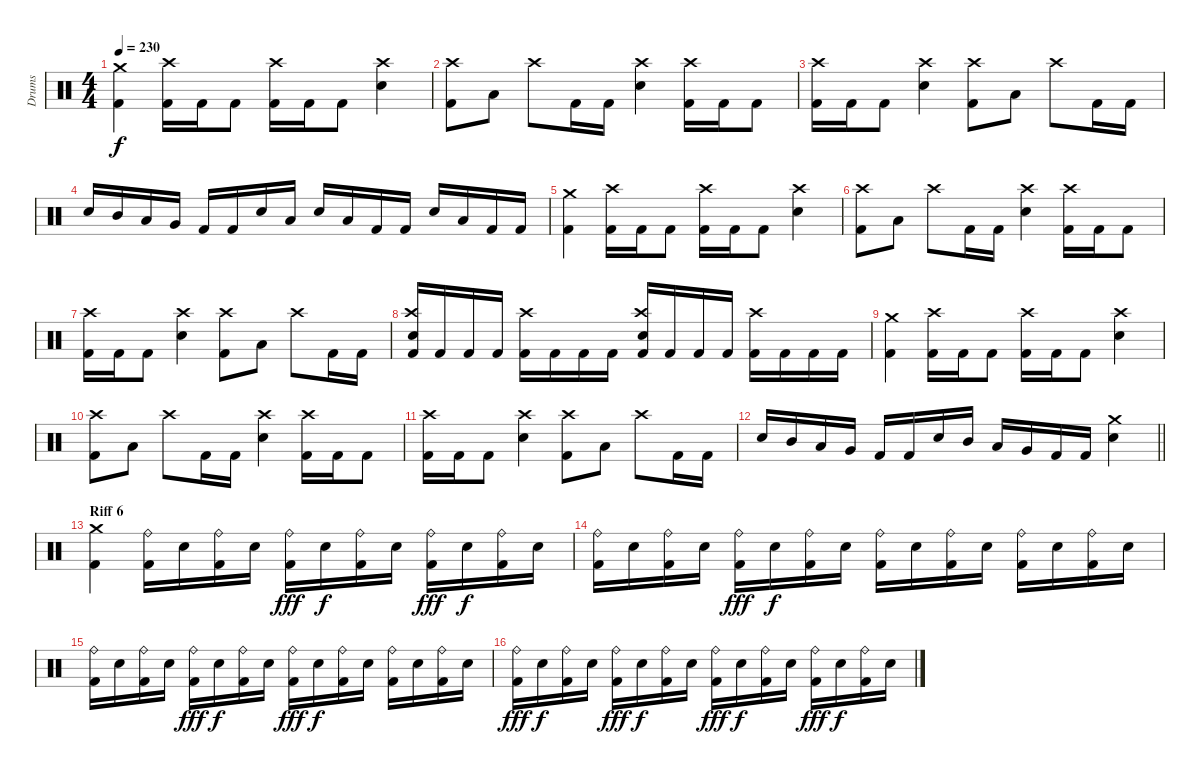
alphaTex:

\track ("Drums" "Drums") {instrument percussion}
\staff {score}
\articulation defaults
\ts (4 4)
\tempo 230
\clef neutral
\ks c
("Crash medium (hit)" "Kick (hit) 2").4{dy f} ("Crash high (hit)" "Kick (hit) 2").16 "Kick (hit) 2".16 "Kick (hit) 2".8 ("Crash high (hit)" "Kick (hit) 2").16 "Kick (hit) 2".16 "Kick (hit) 2".8 ("Crash high (hit)" "Electric Snare (hit)").4 |
("Crash high (hit)" "Kick (hit) 2").8 "Low Tom (hit)".8 "Crash high (hit)".8 "Kick (hit) 2".16 "Kick (hit) 2".16 ("Crash high (hit)" "Electric Snare (hit)").4 ("Crash high (hit)" "Kick (hit) 2").16 "Kick (hit) 2".16 "Kick (hit) 2".8 |
("Crash high (hit)" "Kick (hit) 2").16 "Kick (hit) 2".16 "Kick (hit) 2".8 ("Crash high (hit)" "Electric Snare (hit)").4 ("Crash high (hit)" "Kick (hit) 2").8 "Low Tom (hit)".8 "Crash high (hit)".8 "Kick (hit) 2".16 "Kick (hit) 2".16 |
"Electric Snare (hit)".16 "Mid Tom (hit)".16 "Low Tom (hit)".16 "Very Low Tom (hit)".16 "Kick (hit) 2".16 "Kick (hit) 2".16 "Electric Snare (hit)".16 "Low Tom (hit)".16 "Electric Snare (hit)".16 "Low Tom (hit)".16 "Kick (hit) 2".16 "Kick (hit) 2".16 "Electric Snare (hit)".16 "Low Tom (hit)".16 "Kick (hit) 2".16 "Kick (hit) 2".16 |
("Crash medium (hit)" "Kick (hit) 2").4 ("Crash high (hit)" "Kick (hit) 2").16 "Kick (hit) 2".16 "Kick (hit) 2".8 ("Crash high (hit)" "Kick (hit) 2").16 "Kick (hit) 2".16 "Kick (hit) 2".8 ("Crash high (hit)" "Electric Snare (hit)").4 |
("Crash high (hit)" "Kick (hit) 2").8 "Low Tom (hit)".8 "Crash high (hit)".8 "Kick (hit) 2".16 "Kick (hit) 2".16 ("Crash high (hit)" "Electric Snare (hit)").4 ("Crash high (hit)" "Kick (hit) 2").16 "Kick (hit) 2".16 "Kick (hit) 2".8 |
("Crash high (hit)" "Kick (hit) 2").16 "Kick (hit) 2".16 "Kick (hit) 2".8 ("Crash high (hit)" "Electric Snare (hit)").4 ("Crash high (hit)" "Kick (hit) 2").8 "Low Tom (hit)".8 "Crash high (hit)".8 "Kick (hit) 2".16 "Kick (hit) 2".16 |
("Electric Snare (hit)" "Crash high (hit)" "Kick (hit) 2").16 "Kick (hit) 2".16 "Kick (hit) 2".16 "Kick (hit) 2".16 ("Crash high (hit)" "Kick (hit) 2").16 "Kick (hit) 2".16 "Kick (hit) 2".16 "Kick (hit) 2".16 ("Electric Snare (hit)" "Crash high (hit)" "Kick (hit) 2").16 "Kick (hit) 2".16 "Kick (hit) 2".16 "Kick (hit) 2".16 ("Crash high (hit)" "Kick (hit) 2").16 "Kick (hit) 2".16 "Kick (hit) 2".16 "Kick (hit) 2".16 |
("Crash medium (hit)" "Kick (hit) 2").4 ("Crash high (hit)" "Kick (hit) 2").16 "Kick (hit) 2".16 "Kick (hit) 2".8 ("Crash high (hit)" "Kick (hit) 2").16 "Kick (hit) 2".16 "Kick (hit) 2".8 ("Crash high (hit)" "Electric Snare (hit)").4 |
("Crash high (hit)" "Kick (hit) 2").8 "Low Tom (hit)".8 "Crash high (hit)".8 "Kick (hit) 2".16 "Kick (hit) 2".16 ("Crash high (hit)" "Electric Snare (hit)").4 ("Crash high (hit)" "Kick (hit) 2").16 "Kick (hit) 2".16 "Kick (hit) 2".8 |
("Crash high (hit)" "Kick (hit) 2").16 "Kick (hit) 2".16 "Kick (hit) 2".8 ("Crash high (hit)" "Electric Snare (hit)").4 ("Crash high (hit)" "Kick (hit) 2").8 "Low Tom (hit)".8 "Crash high (hit)".8 "Kick (hit) 2".16 "Kick (hit) 2".16 |
\barLineRight lightlight "Electric Snare (hit)".16 "Mid Tom (hit)".16 "Low Tom (hit)".16 "Very Low Tom (hit)".16 "Kick (hit) 2".16 "Kick (hit) 2".16 "Electric Snare (hit)".16 "Mid Tom (hit)".16 "Low Tom (hit)".16 "Very Low Tom (hit)".16 "Kick (hit) 2".16 "Kick (hit) 2".16
("Electric Snare (hit)" "Crash medium (hit)").4 |
\section ("" "Riff 6")
("Kick (hit) 2" "Crash medium (hit)").4 ("Ride (bell)" "Kick (hit) 2").16 "Electric Snare (hit)".16 ("Ride (bell)" "Kick (hit) 2").16 "Electric Snare (hit)".16 ("Ride (bell)" "Kick (hit) 2").16{dy fff} "Electric Snare (hit)".16{dy f} ("Ride (bell)" "Kick (hit) 2").16 "Electric Snare (hit)".16 ("Ride (bell)" "Kick (hit) 2").16{dy fff} "Electric Snare (hit)".16{dy f} ("Ride (bell)" "Kick (hit) 2").16 "Electric Snare (hit)".16 |
("Ride (bell)" "Kick (hit) 2").16 "Electric Snare (hit)".16 ("Ride (bell)" "Kick (hit) 2").16 "Electric Snare (hit)".16 ("Ride (bell)" "Kick (hit) 2").16{dy fff} "Electric Snare (hit)".16{dy f} ("Ride (bell)" "Kick (hit) 2").16 "Electric Snare (hit)".16 ("Ride (bell)" "Kick (hit) 2").16 "Electric Snare (hit)".16 ("Ride (bell)" "Kick (hit) 2").16 "Electric Snare (hit)".16 ("Ride (bell)" "Kick (hit) 2").16 "Electric Snare (hit)".16 ("Ride (bell)" "Kick (hit) 2").16 "Electric Snare (hit)".16 |
("Ride (bell)" "Kick (hit) 2").16 "Electric Snare (hit)".16 ("Ride (bell)" "Kick (hit) 2").16 "Electric Snare (hit)".16 ("Ride (bell)" "Kick (hit) 2").16{dy fff} "Electric Snare (hit)".16{dy f} ("Ride (bell)" "Kick (hit) 2").16 "Electric Snare (hit)".16 ("Ride (bell)" "Kick (hit) 2").16{dy fff} "Electric Snare (hit)".16{dy f} ("Ride (bell)" "Kick (hit) 2").16 "Electric Snare (hit)".16 ("Ride (bell)" "Kick (hit) 2").16 "Electric Snare (hit)".16 ("Ride (bell)" "Kick (hit) 2").16 "Electric Snare (hit)".16 |
("Ride (bell)" "Kick (hit) 2").16{dy fff} "Electric Snare (hit)".16{dy f} ("Ride (bell)" "Kick (hit) 2").16 "Electric Snare (hit)".16 ("Ride (bell)" "Kick (hit) 2").16{dy fff} "Electric Snare (hit)".16{dy f} ("Ride (bell)" "Kick (hit) 2").16 "Electric Snare (hit)".16 ("Ride (bell)" "Kick (hit) 2").16{dy fff} "Electric Snare (hit)".16{dy f} ("Ride (bell)" "Kick (hit) 2").16 "Electric Snare (hit)".16 ("Ride (bell)" "Kick (hit) 2").16{dy fff} "Electric Snare (hit)".16{dy f} ("Ride (bell)" "Kick (hit) 2").16 "Electric Snare (hit)".16
